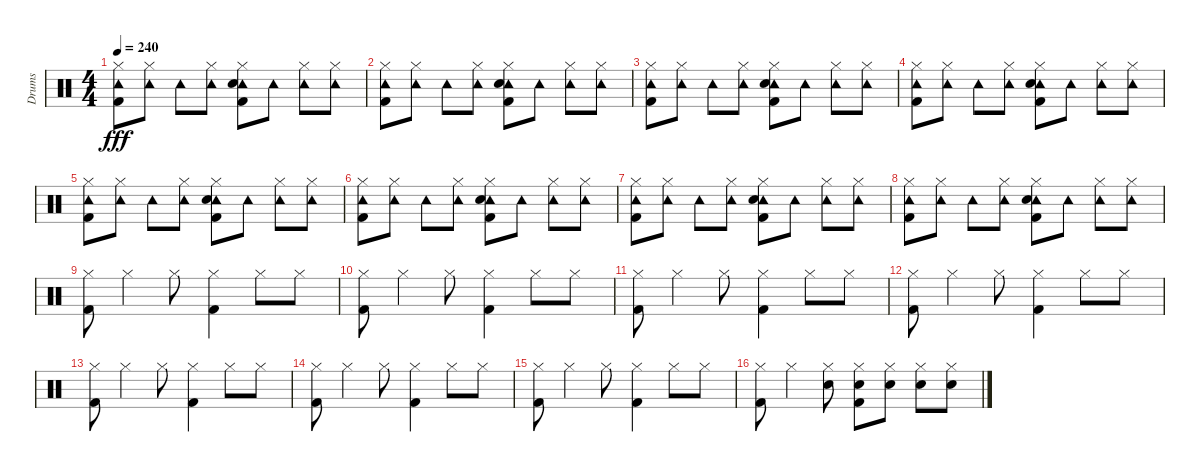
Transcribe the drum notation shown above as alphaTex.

\track ("Drums" "Drums") {instrument percussion}
\staff {score}
\articulation defaults
\ts (4 4)
\tempo 240
\clef neutral
\ks c
("Tambourine (hit)" "Hi-Hat (closed)" "Kick (hit) 2").8{dy fff} ("Tambourine (hit)" "Hi-Hat (closed)").8 "Tambourine (hit)".8 ("Tambourine (hit)" "Hi-Hat (closed)").8 ("Tambourine (hit)" "Hi-Hat (closed)" "Hand Clap (hit)" "Kick (hit) 2").8 "Tambourine (hit)".8 ("Tambourine (hit)" "Hi-Hat (closed)").8 ("Tambourine (hit)" "Hi-Hat (closed)").8 |
("Tambourine (hit)" "Hi-Hat (closed)" "Kick (hit) 2").8 ("Tambourine (hit)" "Hi-Hat (closed)").8 "Tambourine (hit)".8 ("Tambourine (hit)" "Hi-Hat (closed)").8 ("Tambourine (hit)" "Hi-Hat (closed)" "Hand Clap (hit)" "Kick (hit) 2").8 "Tambourine (hit)".8 ("Tambourine (hit)" "Hi-Hat (closed)").8 ("Tambourine (hit)" "Hi-Hat (closed)").8 |
("Tambourine (hit)" "Hi-Hat (closed)" "Kick (hit) 2").8 ("Tambourine (hit)" "Hi-Hat (closed)").8 "Tambourine (hit)".8 ("Tambourine (hit)" "Hi-Hat (closed)").8 ("Tambourine (hit)" "Hi-Hat (closed)" "Hand Clap (hit)" "Kick (hit) 2").8 "Tambourine (hit)".8 ("Tambourine (hit)" "Hi-Hat (closed)").8 ("Tambourine (hit)" "Hi-Hat (closed)").8 |
("Tambourine (hit)" "Hi-Hat (closed)" "Kick (hit) 2").8 ("Tambourine (hit)" "Hi-Hat (closed)").8 "Tambourine (hit)".8 ("Tambourine (hit)" "Hi-Hat (closed)").8 ("Tambourine (hit)" "Hi-Hat (closed)" "Hand Clap (hit)" "Kick (hit) 2").8 "Tambourine (hit)".8 ("Tambourine (hit)" "Hi-Hat (closed)").8 ("Tambourine (hit)" "Hi-Hat (closed)").8 |
("Tambourine (hit)" "Hi-Hat (closed)" "Kick (hit) 2").8 ("Tambourine (hit)" "Hi-Hat (closed)").8 "Tambourine (hit)".8 ("Tambourine (hit)" "Hi-Hat (closed)").8 ("Tambourine (hit)" "Hi-Hat (closed)" "Hand Clap (hit)" "Kick (hit) 2").8 "Tambourine (hit)".8 ("Tambourine (hit)" "Hi-Hat (closed)").8 ("Tambourine (hit)" "Hi-Hat (closed)").8 |
("Tambourine (hit)" "Hi-Hat (closed)" "Kick (hit) 2").8 ("Tambourine (hit)" "Hi-Hat (closed)").8 "Tambourine (hit)".8 ("Tambourine (hit)" "Hi-Hat (closed)").8 ("Tambourine (hit)" "Hi-Hat (closed)" "Hand Clap (hit)" "Kick (hit) 2").8 "Tambourine (hit)".8 ("Tambourine (hit)" "Hi-Hat (closed)").8 ("Tambourine (hit)" "Hi-Hat (closed)").8 |
("Tambourine (hit)" "Hi-Hat (closed)" "Kick (hit) 2").8 ("Tambourine (hit)" "Hi-Hat (closed)").8 "Tambourine (hit)".8 ("Tambourine (hit)" "Hi-Hat (closed)").8 ("Tambourine (hit)" "Hi-Hat (closed)" "Hand Clap (hit)" "Kick (hit) 2").8 "Tambourine (hit)".8 ("Tambourine (hit)" "Hi-Hat (closed)").8 ("Tambourine (hit)" "Hi-Hat (closed)").8 |
("Tambourine (hit)" "Hi-Hat (closed)" "Kick (hit) 2").8 ("Tambourine (hit)" "Hi-Hat (closed)").8 "Tambourine (hit)".8 ("Tambourine (hit)" "Hi-Hat (closed)").8 ("Tambourine (hit)" "Hi-Hat (closed)" "Hand Clap (hit)" "Kick (hit) 2").8 "Tambourine (hit)".8 ("Tambourine (hit)" "Hi-Hat (closed)").8 ("Tambourine (hit)" "Hi-Hat (closed)").8 |
("Hi-Hat (closed)" "Kick (hit) 2").8 "Hi-Hat (closed)".4 "Hi-Hat (closed)".8 ("Hi-Hat (closed)" "Kick (hit) 2").4 "Hi-Hat (closed)".8 "Hi-Hat (closed)".8 |
("Hi-Hat (closed)" "Kick (hit) 2").8 "Hi-Hat (closed)".4 "Hi-Hat (closed)".8 ("Hi-Hat (closed)" "Kick (hit) 2").4 "Hi-Hat (closed)".8 "Hi-Hat (closed)".8 |
("Hi-Hat (closed)" "Kick (hit) 2").8 "Hi-Hat (closed)".4 "Hi-Hat (closed)".8 ("Hi-Hat (closed)" "Kick (hit) 2").4 "Hi-Hat (closed)".8 "Hi-Hat (closed)".8 |
("Hi-Hat (closed)" "Kick (hit) 2").8 "Hi-Hat (closed)".4 "Hi-Hat (closed)".8 ("Hi-Hat (closed)" "Kick (hit) 2").4 "Hi-Hat (closed)".8 "Hi-Hat (closed)".8 |
("Hi-Hat (closed)" "Kick (hit) 2").8 "Hi-Hat (closed)".4 "Hi-Hat (closed)".8 ("Hi-Hat (closed)" "Kick (hit) 2").4 "Hi-Hat (closed)".8 "Hi-Hat (closed)".8 |
("Hi-Hat (closed)" "Kick (hit) 2").8 "Hi-Hat (closed)".4 "Hi-Hat (closed)".8 ("Hi-Hat (closed)" "Kick (hit) 2").4 "Hi-Hat (closed)".8 "Hi-Hat (closed)".8 |
("Hi-Hat (closed)" "Kick (hit) 2").8 "Hi-Hat (closed)".4 "Hi-Hat (closed)".8 ("Hi-Hat (closed)" "Kick (hit) 2").4 "Hi-Hat (closed)".8 "Hi-Hat (closed)".8 |
("Hi-Hat (closed)" "Kick (hit) 2").8 "Hi-Hat (closed)".4 ("Hi-Hat (closed)" "Snare (hit) 2").8 ("Hi-Hat (closed)" "Snare (hit) 2" "Kick (hit) 2").8 ("Hi-Hat (closed)" "Snare (hit) 2").8 ("Hi-Hat (closed)" "Snare (hit) 2").8 ("Hi-Hat (closed)" "Snare (hit) 2").8
